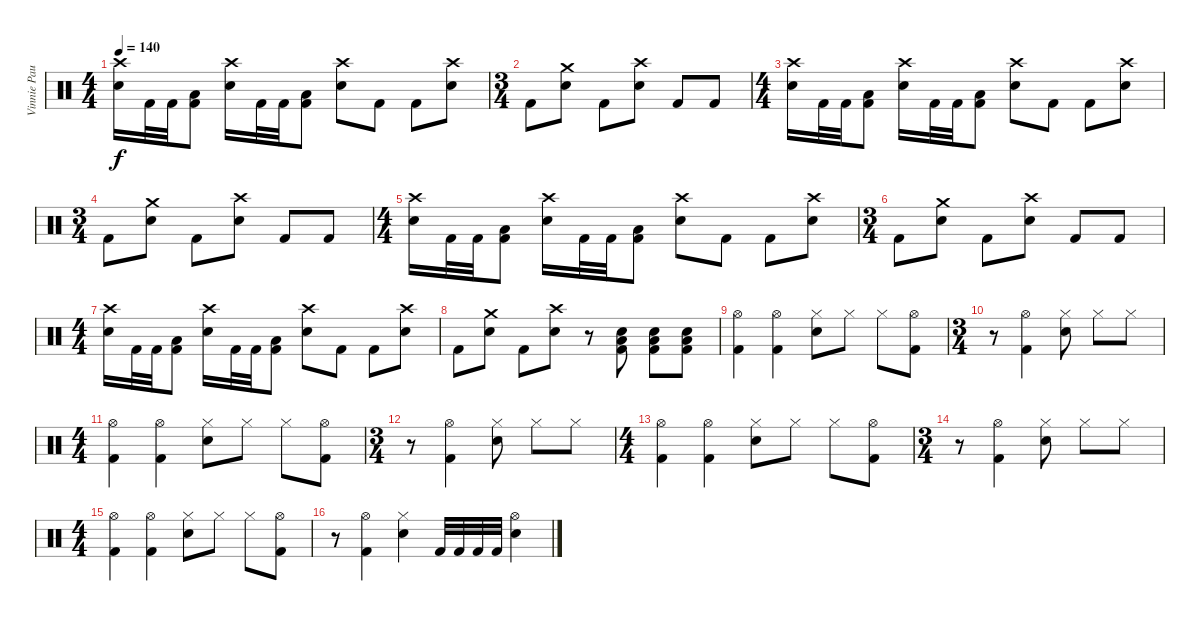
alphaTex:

\track ("Vinnie Paul" "Vinnie Pau") {instrument percussion}
\staff {score}
\articulation defaults
\ts (4 4)
\tempo 140
\clef neutral
\ks c
("Crash high (hit)" "Snare (hit) 2").16{dy f} "Kick (hit) 2".32 "Kick (hit) 2".32 ("Low Tom (hit)" "Kick (hit) 2").8 ("Crash high (hit)" "Snare (hit) 2").16 "Kick (hit) 2".32 "Kick (hit) 2".32 ("Low Tom (hit)" "Kick (hit) 2").8 ("Crash high (hit)" "Snare (hit) 2").8 "Kick (hit) 2".8 "Kick (hit) 2".8 ("Crash high (hit)" "Snare (hit) 2").8 |
\ts (3 4)
"Kick (hit) 2".8 ("Crash medium (hit)" "Snare (hit) 2").8 "Kick (hit) 2".8 ("Crash high (hit)" "Snare (hit) 2").8 "Kick (hit) 2".8 "Kick (hit) 2".8 |
\ts (4 4)
("Crash high (hit)" "Snare (hit) 2").16 "Kick (hit) 2".32 "Kick (hit) 2".32 ("Low Tom (hit)" "Kick (hit) 2").8 ("Crash high (hit)" "Snare (hit) 2").16 "Kick (hit) 2".32 "Kick (hit) 2".32 ("Low Tom (hit)" "Kick (hit) 2").8 ("Crash high (hit)" "Snare (hit) 2").8 "Kick (hit) 2".8 "Kick (hit) 2".8 ("Crash high (hit)" "Snare (hit) 2").8 |
\ts (3 4)
"Kick (hit) 2".8 ("Crash medium (hit)" "Snare (hit) 2").8 "Kick (hit) 2".8 ("Crash high (hit)" "Snare (hit) 2").8 "Kick (hit) 2".8 "Kick (hit) 2".8 |
\ts (4 4)
("Crash high (hit)" "Snare (hit) 2").16 "Kick (hit) 2".32 "Kick (hit) 2".32 ("Low Tom (hit)" "Kick (hit) 2").8 ("Crash high (hit)" "Snare (hit) 2").16 "Kick (hit) 2".32 "Kick (hit) 2".32 ("Low Tom (hit)" "Kick (hit) 2").8 ("Crash high (hit)" "Snare (hit) 2").8 "Kick (hit) 2".8 "Kick (hit) 2".8 ("Crash high (hit)" "Snare (hit) 2").8 |
\ts (3 4)
"Kick (hit) 2".8 ("Crash medium (hit)" "Snare (hit) 2").8 "Kick (hit) 2".8 ("Crash high (hit)" "Snare (hit) 2").8 "Kick (hit) 2".8 "Kick (hit) 2".8 |
\ts (4 4)
("Crash high (hit)" "Snare (hit) 2").16 "Kick (hit) 2".32 "Kick (hit) 2".32 ("Low Tom (hit)" "Kick (hit) 2").8 ("Crash high (hit)" "Snare (hit) 2").16 "Kick (hit) 2".32 "Kick (hit) 2".32 ("Low Tom (hit)" "Kick (hit) 2").8 ("Crash high (hit)" "Snare (hit) 2").8 "Kick (hit) 2".8 "Kick (hit) 2".8 ("Crash high (hit)" "Snare (hit) 2").8 |
"Kick (hit) 2".8 ("Crash medium (hit)" "Snare (hit) 2").8 "Kick (hit) 2".8 ("Crash high (hit)" "Snare (hit) 2").8 r.8 ("Low Floor Tom (hit)" "Snare (hit) 2" "Kick (hit) 2").8 ("Low Floor Tom (hit)" "Snare (hit) 2" "Kick (hit) 2").8 ("Low Floor Tom (hit)" "Snare (hit) 2" "Kick (hit) 2").8 |
("Hi-Hat (open)" "Kick (hit) 2").4 ("Hi-Hat (open)" "Kick (hit) 2").4 ("Hi-Hat (closed)" "Snare (hit) 2").8 "Hi-Hat (closed)".8 "Hi-Hat (closed)".8 ("Hi-Hat (open)" "Kick (hit) 2").8 |
\ts (3 4)
r.8 ("Hi-Hat (open)" "Kick (hit) 2").4 ("Hi-Hat (closed)" "Snare (hit) 2").8 "Hi-Hat (closed)".8 "Hi-Hat (closed)".8 |
\ts (4 4)
("Hi-Hat (open)" "Kick (hit) 2").4 ("Hi-Hat (open)" "Kick (hit) 2").4 ("Hi-Hat (closed)" "Snare (hit) 2").8 "Hi-Hat (closed)".8 "Hi-Hat (closed)".8 ("Hi-Hat (open)" "Kick (hit) 2").8 |
\ts (3 4)
r.8 ("Hi-Hat (open)" "Kick (hit) 2").4 ("Hi-Hat (closed)" "Snare (hit) 2").8 "Hi-Hat (closed)".8 "Hi-Hat (closed)".8 |
\ts (4 4)
("Hi-Hat (open)" "Kick (hit) 2").4 ("Hi-Hat (open)" "Kick (hit) 2").4 ("Hi-Hat (closed)" "Snare (hit) 2").8 "Hi-Hat (closed)".8 "Hi-Hat (closed)".8 ("Hi-Hat (open)" "Kick (hit) 2").8 |
\ts (3 4)
r.8 ("Hi-Hat (open)" "Kick (hit) 2").4 ("Hi-Hat (closed)" "Snare (hit) 2").8 "Hi-Hat (closed)".8 "Hi-Hat (closed)".8 |
\ts (4 4)
("Hi-Hat (open)" "Kick (hit) 2").4 ("Hi-Hat (open)" "Kick (hit) 2").4 ("Hi-Hat (closed)" "Snare (hit) 2").8 "Hi-Hat (closed)".8 "Hi-Hat (closed)".8 ("Hi-Hat (open)" "Kick (hit) 2").8 |
r.8 ("Hi-Hat (open)" "Kick (hit) 2").4 ("Hi-Hat (closed)" "Snare (hit) 2").4 "Kick (hit) 2".32 "Kick (hit) 2".32 "Kick (hit) 2".32 "Kick (hit) 2".32 ("Hi-Hat (open)" "Snare (hit) 2").4
